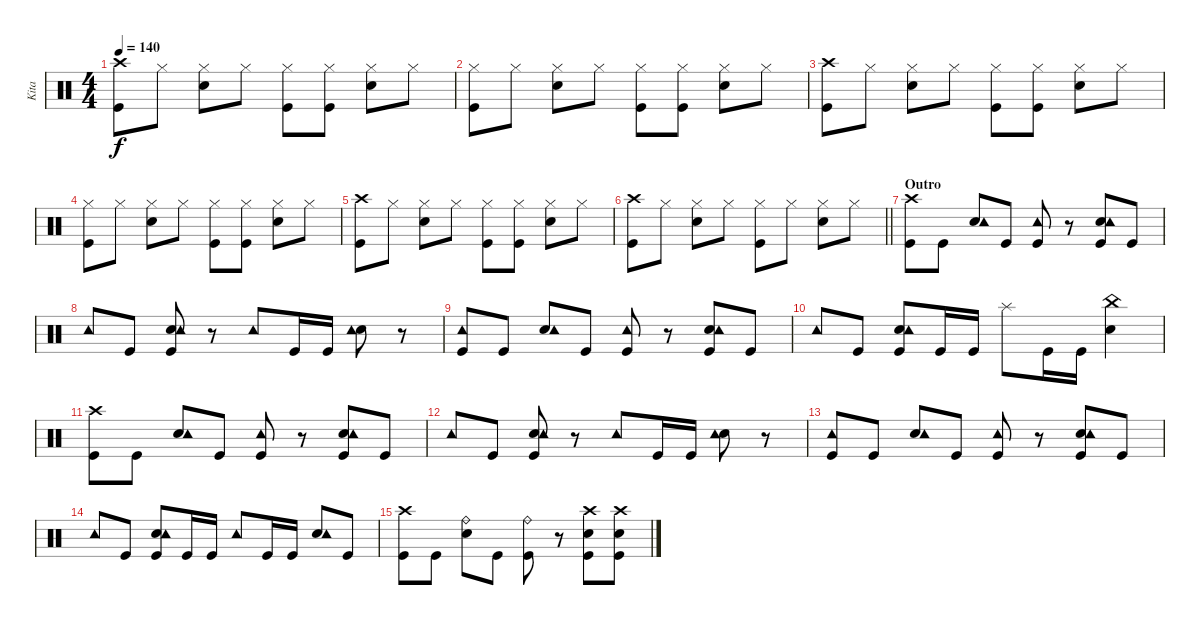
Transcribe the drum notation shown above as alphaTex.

\track ("Kita" "Kita") {instrument percussion}
\staff {score}
\articulation defaults
\ts (4 4)
\tempo 140
\clef neutral
\ks c
("Crash high (hit)" "Kick (hit)").8{dy f} "Hi-Hat (closed)".8 ("Hi-Hat (closed)" "Snare (hit) 2").8 "Hi-Hat (closed)".8 ("Hi-Hat (closed)" "Kick (hit)").8 ("Hi-Hat (closed)" "Kick (hit)").8 ("Hi-Hat (closed)" "Snare (hit) 2").8 "Hi-Hat (closed)".8 |
("Hi-Hat (closed)" "Kick (hit)").8 "Hi-Hat (closed)".8 ("Hi-Hat (closed)" "Snare (hit) 2").8 "Hi-Hat (closed)".8 ("Hi-Hat (closed)" "Kick (hit)").8 ("Hi-Hat (closed)" "Kick (hit)").8 ("Hi-Hat (closed)" "Snare (hit) 2").8 "Hi-Hat (closed)".8 |
("Crash high (hit)" "Kick (hit)").8 "Hi-Hat (closed)".8 ("Hi-Hat (closed)" "Snare (hit) 2").8 "Hi-Hat (closed)".8 ("Hi-Hat (closed)" "Kick (hit)").8 ("Hi-Hat (closed)" "Kick (hit)").8 ("Hi-Hat (closed)" "Snare (hit) 2").8 "Hi-Hat (closed)".8 |
("Hi-Hat (closed)" "Kick (hit)").8 "Hi-Hat (closed)".8 ("Hi-Hat (closed)" "Snare (hit) 2").8 "Hi-Hat (closed)".8 ("Hi-Hat (closed)" "Kick (hit)").8 ("Hi-Hat (closed)" "Kick (hit)").8 ("Hi-Hat (closed)" "Snare (hit) 2").8 "Hi-Hat (closed)".8 |
("Crash high (hit)" "Kick (hit)").8 "Hi-Hat (closed)".8 ("Hi-Hat (closed)" "Snare (hit) 2").8 "Hi-Hat (closed)".8 ("Hi-Hat (closed)" "Kick (hit)").8 ("Hi-Hat (closed)" "Kick (hit)").8 ("Hi-Hat (closed)" "Snare (hit) 2").8 "Hi-Hat (closed)".8 |
\barLineRight lightlight
("Crash high (hit)" "Kick (hit)").8 "Hi-Hat (closed)".8 ("Hi-Hat (closed)" "Snare (hit) 2").8 "Hi-Hat (closed)".8 ("Hi-Hat (closed)" "Kick (hit)").8 "Hi-Hat (closed)".8 ("Hi-Hat (closed)" "Snare (hit) 2").8 "Hi-Hat (closed)".8 |
\section ("" "Outro")
("Kick (hit)" "Crash high (hit)").8 "Kick (hit)".8 ("Snare (hit) 2" "Tambourine (hit)").8 "Kick (hit)".8 ("Kick (hit)" "Tambourine (hit)").8 r.8 ("Kick (hit)" "Snare (hit) 2" "Tambourine (hit)").8 "Kick (hit)".8 |
"Tambourine (hit)".8 "Kick (hit)".8 ("Kick (hit)" "Snare (hit) 2" "Tambourine (hit)").8 r.8 "Tambourine (hit)".8 "Kick (hit)".16 "Kick (hit)".16 ("Snare (hit) 2" "Tambourine (hit)").8 r.8 |
("Kick (hit)" "Tambourine (hit)").8 "Kick (hit)".8 ("Snare (hit) 2" "Tambourine (hit)").8 "Kick (hit)".8 ("Kick (hit)" "Tambourine (hit)").8 r.8 ("Kick (hit)" "Snare (hit) 2" "Tambourine (hit)").8 "Kick (hit)".8 |
"Tambourine (hit)".8 "Kick (hit)".8 ("Kick (hit)" "Snare (hit) 2" "Tambourine (hit)").8 "Kick (hit)".16 "Kick (hit)".16 "Splash (hit)".8 "Kick (hit)".16 "Kick (hit)".16 ("Snare (hit) 2" "China (hit)").4 |
("Kick (hit)" "Crash high (hit)").8 "Kick (hit)".8 ("Snare (hit) 2" "Tambourine (hit)").8 "Kick (hit)".8 ("Kick (hit)" "Tambourine (hit)").8 r.8 ("Kick (hit)" "Snare (hit) 2" "Tambourine (hit)").8 "Kick (hit)".8 |
"Tambourine (hit)".8 "Kick (hit)".8 ("Kick (hit)" "Snare (hit) 2" "Tambourine (hit)").8 r.8 "Tambourine (hit)".8 "Kick (hit)".16 "Kick (hit)".16 ("Snare (hit) 2" "Tambourine (hit)").8 r.8 |
("Kick (hit)" "Tambourine (hit)").8 "Kick (hit)".8 ("Snare (hit) 2" "Tambourine (hit)").8 "Kick (hit)".8 ("Kick (hit)" "Tambourine (hit)").8 r.8 ("Kick (hit)" "Snare (hit) 2" "Tambourine (hit)").8 "Kick (hit)".8 |
"Tambourine (hit)".8 "Kick (hit)".8 ("Kick (hit)" "Snare (hit) 2" "Tambourine (hit)").8 "Kick (hit)".16 "Kick (hit)".16 "Tambourine (hit)".8 "Kick (hit)".16 "Kick (hit)".16 ("Snare (hit) 2" "Tambourine (hit)").8 "Kick (hit)".8 |
("Kick (hit)" "Crash high (hit)").8 "Kick (hit)".8 ("Snare (hit) 2" "Ride (bell)").8 "Kick (hit)".8 ("Kick (hit)" "Ride (bell)").8 r.8 ("Kick (hit)" "Snare (hit) 2" "Crash high (hit)").8 ("Kick (hit)" "Snare (hit) 2" "Crash high (hit)").8
